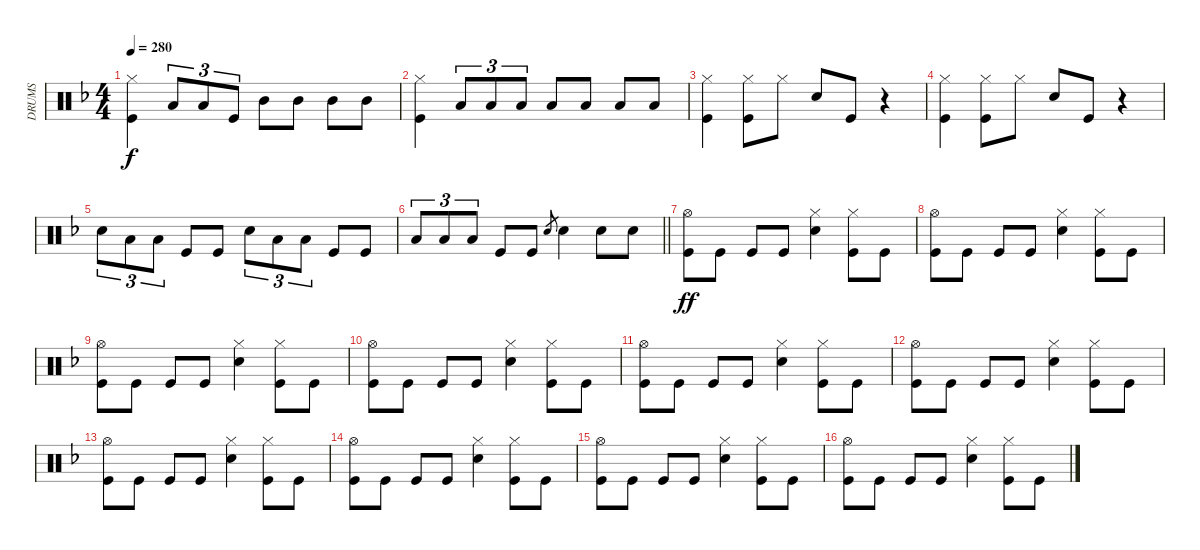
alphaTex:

\track ("DRUMS" "DRUMS") {instrument percussion}
\staff {score}
\articulation defaults
\ts (4 4)
\tempo 280
\clef neutral
\ks dminor
("Hi-Hat (closed)" "Kick (hit)").4{dy f} "Low Tom (hit)".8{tu (3 2)} "Low Tom (hit)".8{tu (3 2)} "Kick (hit)".8{tu (3 2)} "Mid Tom (hit)".8 "Mid Tom (hit)".8 "Mid Tom (hit)".8 "Mid Tom (hit)".8 |
("Hi-Hat (closed)" "Kick (hit)").4 "Low Tom (hit)".8{tu (3 2)} "Low Tom (hit)".8{tu (3 2)} "Low Tom (hit)".8{tu (3 2)} "Low Tom (hit)".8 "Low Tom (hit)".8 "Low Tom (hit)".8 "Low Tom (hit)".8 |
("Hi-Hat (closed)" "Kick (hit)").4 ("Hi-Hat (closed)" "Kick (hit)").8 "Hi-Hat (closed)".8 "Snare (hit) 2".8 "Kick (hit)".8 r.4 |
("Hi-Hat (closed)" "Kick (hit)").4 ("Hi-Hat (closed)" "Kick (hit)").8 "Hi-Hat (closed)".8 "Snare (hit) 2".8 "Kick (hit)".8 r.4 |
"Snare (hit) 2".8{tu (3 2)} "Low Tom (hit)".8{tu (3 2)} "Low Tom (hit)".8{tu (3 2)} "Kick (hit)".8 "Kick (hit)".8 "Snare (hit) 2".8{tu (3 2)} "Low Tom (hit)".8{tu (3 2)} "Low Tom (hit)".8{tu (3 2)} "Kick (hit)".8 "Kick (hit)".8 |
\barLineRight lightlight "Low Tom (hit)".8{tu (3 2)} "Low Tom (hit)".8{tu (3 2)} "Low Tom (hit)".8{tu (3 2)} "Kick (hit)".8 "Kick (hit)".8 "Snare (hit) 2".8{gr} "Snare (hit) 2".4 "Snare (hit) 2".8 "Snare (hit) 2".8
|
("Hi-Hat (open)" "Kick (hit)").8{dy ff} "Kick (hit)".8 "Kick (hit)".8 "Kick (hit)".8 ("Hi-Hat (closed)" "Snare (hit) 2").4 ("Hi-Hat (closed)" "Kick (hit)").8 "Kick (hit)".8 |
("Hi-Hat (open)" "Kick (hit)").8 "Kick (hit)".8 "Kick (hit)".8 "Kick (hit)".8 ("Hi-Hat (closed)" "Snare (hit) 2").4 ("Hi-Hat (closed)" "Kick (hit)").8 "Kick (hit)".8 |
("Hi-Hat (open)" "Kick (hit)").8 "Kick (hit)".8 "Kick (hit)".8 "Kick (hit)".8 ("Hi-Hat (closed)" "Snare (hit) 2").4 ("Hi-Hat (closed)" "Kick (hit)").8 "Kick (hit)".8 |
("Hi-Hat (open)" "Kick (hit)").8 "Kick (hit)".8 "Kick (hit)".8 "Kick (hit)".8 ("Hi-Hat (closed)" "Snare (hit) 2").4 ("Hi-Hat (closed)" "Kick (hit)").8 "Kick (hit)".8 |
("Hi-Hat (open)" "Kick (hit)").8 "Kick (hit)".8 "Kick (hit)".8 "Kick (hit)".8 ("Hi-Hat (closed)" "Snare (hit) 2").4 ("Hi-Hat (closed)" "Kick (hit)").8 "Kick (hit)".8 |
("Hi-Hat (open)" "Kick (hit)").8 "Kick (hit)".8 "Kick (hit)".8 "Kick (hit)".8 ("Hi-Hat (closed)" "Snare (hit) 2").4 ("Hi-Hat (closed)" "Kick (hit)").8 "Kick (hit)".8 |
("Hi-Hat (open)" "Kick (hit)").8 "Kick (hit)".8 "Kick (hit)".8 "Kick (hit)".8 ("Hi-Hat (closed)" "Snare (hit) 2").4 ("Hi-Hat (closed)" "Kick (hit)").8 "Kick (hit)".8 |
("Hi-Hat (open)" "Kick (hit)").8 "Kick (hit)".8 "Kick (hit)".8 "Kick (hit)".8 ("Hi-Hat (closed)" "Snare (hit) 2").4 ("Hi-Hat (closed)" "Kick (hit)").8 "Kick (hit)".8 |
("Hi-Hat (open)" "Kick (hit)").8 "Kick (hit)".8 "Kick (hit)".8 "Kick (hit)".8 ("Hi-Hat (closed)" "Snare (hit) 2").4 ("Hi-Hat (closed)" "Kick (hit)").8 "Kick (hit)".8 |
("Hi-Hat (open)" "Kick (hit)").8 "Kick (hit)".8 "Kick (hit)".8 "Kick (hit)".8 ("Hi-Hat (closed)" "Snare (hit) 2").4 ("Hi-Hat (closed)" "Kick (hit)").8 "Kick (hit)".8
